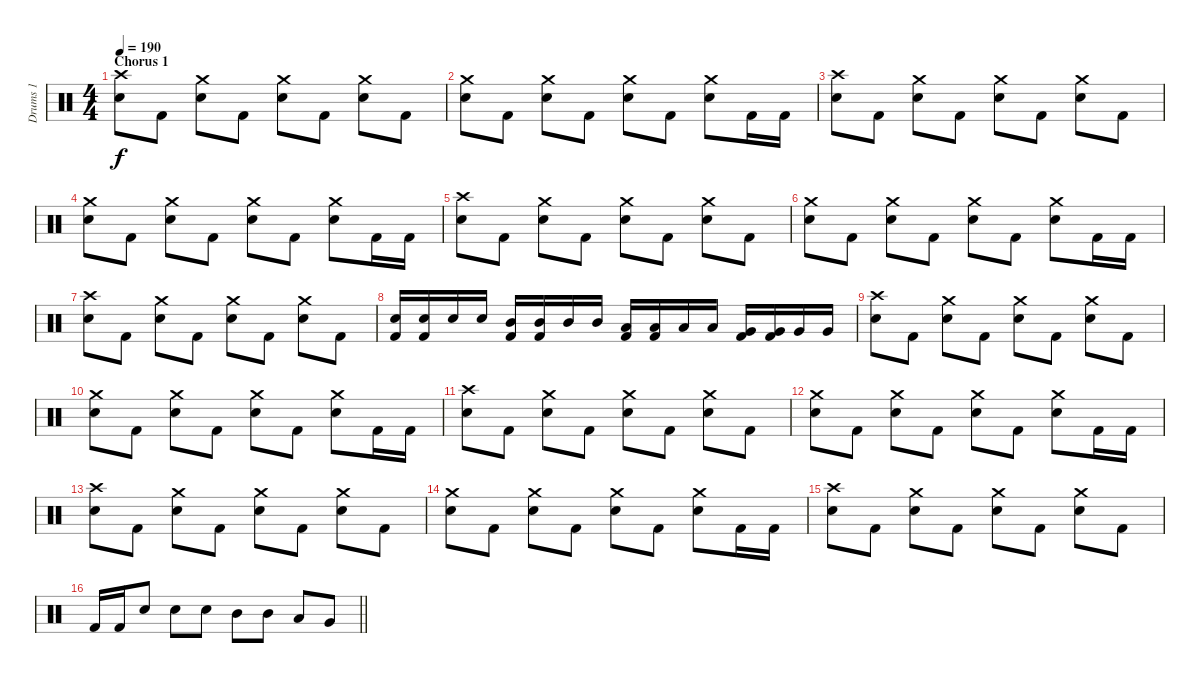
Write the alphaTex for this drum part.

\track ("Drums 1" "Drums 1") {instrument percussion}
\staff {score}
\articulation defaults
\ts (4 4)
\section ("" "Chorus 1")
\tempo 190
\clef neutral
\ks c
("Crash high (hit)" "Snare (hit) 2").8{dy f} "Kick (hit) 2".8 ("Crash medium (hit)" "Snare (hit) 2").8 "Kick (hit) 2".8 ("Crash medium (hit)" "Snare (hit) 2").8 "Kick (hit) 2".8 ("Crash medium (hit)" "Snare (hit) 2").8 "Kick (hit) 2".8 |
("Crash medium (hit)" "Snare (hit) 2").8 "Kick (hit) 2".8 ("Crash medium (hit)" "Snare (hit) 2").8 "Kick (hit) 2".8 ("Crash medium (hit)" "Snare (hit) 2").8 "Kick (hit) 2".8 ("Crash medium (hit)" "Snare (hit) 2").8 "Kick (hit) 2".16 "Kick (hit) 2".16 |
("Crash high (hit)" "Snare (hit) 2").8 "Kick (hit) 2".8 ("Crash medium (hit)" "Snare (hit) 2").8 "Kick (hit) 2".8 ("Crash medium (hit)" "Snare (hit) 2").8 "Kick (hit) 2".8 ("Crash medium (hit)" "Snare (hit) 2").8 "Kick (hit) 2".8 |
("Crash medium (hit)" "Snare (hit) 2").8 "Kick (hit) 2".8 ("Crash medium (hit)" "Snare (hit) 2").8 "Kick (hit) 2".8 ("Crash medium (hit)" "Snare (hit) 2").8 "Kick (hit) 2".8 ("Crash medium (hit)" "Snare (hit) 2").8 "Kick (hit) 2".16 "Kick (hit) 2".16 |
("Crash high (hit)" "Snare (hit) 2").8 "Kick (hit) 2".8 ("Crash medium (hit)" "Snare (hit) 2").8 "Kick (hit) 2".8 ("Crash medium (hit)" "Snare (hit) 2").8 "Kick (hit) 2".8 ("Crash medium (hit)" "Snare (hit) 2").8 "Kick (hit) 2".8 |
("Crash medium (hit)" "Snare (hit) 2").8 "Kick (hit) 2".8 ("Crash medium (hit)" "Snare (hit) 2").8 "Kick (hit) 2".8 ("Crash medium (hit)" "Snare (hit) 2").8 "Kick (hit) 2".8 ("Crash medium (hit)" "Snare (hit) 2").8 "Kick (hit) 2".16 "Kick (hit) 2".16 |
("Crash high (hit)" "Snare (hit) 2").8 "Kick (hit) 2".8 ("Crash medium (hit)" "Snare (hit) 2").8 "Kick (hit) 2".8 ("Crash medium (hit)" "Snare (hit) 2").8 "Kick (hit) 2".8 ("Crash medium (hit)" "Snare (hit) 2").8 "Kick (hit) 2".8 |
("Snare (hit) 2" "Kick (hit) 2").16 ("Snare (hit) 2" "Kick (hit) 2").16 "Snare (hit) 2".16 "Snare (hit) 2".16 ("Mid Tom (hit)" "Kick (hit) 2").16 ("Mid Tom (hit)" "Kick (hit) 2").16 "Mid Tom (hit)".16 "Mid Tom (hit)".16 ("Low Tom (hit)" "Kick (hit) 2").16 ("Low Tom (hit)" "Kick (hit) 2").16 "Low Tom (hit)".16 "Low Tom (hit)".16 ("Very Low Tom (hit)" "Kick (hit) 2").16 ("Very Low Tom (hit)" "Kick (hit) 2").16 "Very Low Tom (hit)".16 "Very Low Tom (hit)".16 |
("Crash high (hit)" "Snare (hit) 2").8 "Kick (hit) 2".8 ("Crash medium (hit)" "Snare (hit) 2").8 "Kick (hit) 2".8 ("Crash medium (hit)" "Snare (hit) 2").8 "Kick (hit) 2".8 ("Crash medium (hit)" "Snare (hit) 2").8 "Kick (hit) 2".8 |
("Crash medium (hit)" "Snare (hit) 2").8 "Kick (hit) 2".8 ("Crash medium (hit)" "Snare (hit) 2").8 "Kick (hit) 2".8 ("Crash medium (hit)" "Snare (hit) 2").8 "Kick (hit) 2".8 ("Crash medium (hit)" "Snare (hit) 2").8 "Kick (hit) 2".16 "Kick (hit) 2".16 |
("Crash high (hit)" "Snare (hit) 2").8 "Kick (hit) 2".8 ("Crash medium (hit)" "Snare (hit) 2").8 "Kick (hit) 2".8 ("Crash medium (hit)" "Snare (hit) 2").8 "Kick (hit) 2".8 ("Crash medium (hit)" "Snare (hit) 2").8 "Kick (hit) 2".8 |
("Crash medium (hit)" "Snare (hit) 2").8 "Kick (hit) 2".8 ("Crash medium (hit)" "Snare (hit) 2").8 "Kick (hit) 2".8 ("Crash medium (hit)" "Snare (hit) 2").8 "Kick (hit) 2".8 ("Crash medium (hit)" "Snare (hit) 2").8 "Kick (hit) 2".16 "Kick (hit) 2".16 |
("Crash high (hit)" "Snare (hit) 2").8 "Kick (hit) 2".8 ("Crash medium (hit)" "Snare (hit) 2").8 "Kick (hit) 2".8 ("Crash medium (hit)" "Snare (hit) 2").8 "Kick (hit) 2".8 ("Crash medium (hit)" "Snare (hit) 2").8 "Kick (hit) 2".8 |
("Crash medium (hit)" "Snare (hit) 2").8 "Kick (hit) 2".8 ("Crash medium (hit)" "Snare (hit) 2").8 "Kick (hit) 2".8 ("Crash medium (hit)" "Snare (hit) 2").8 "Kick (hit) 2".8 ("Crash medium (hit)" "Snare (hit) 2").8 "Kick (hit) 2".16 "Kick (hit) 2".16 |
("Crash high (hit)" "Snare (hit) 2").8 "Kick (hit) 2".8 ("Crash medium (hit)" "Snare (hit) 2").8 "Kick (hit) 2".8 ("Crash medium (hit)" "Snare (hit) 2").8 "Kick (hit) 2".8 ("Crash medium (hit)" "Snare (hit) 2").8 "Kick (hit) 2".8 |
\barLineRight lightlight "Kick (hit) 2".16 "Kick (hit) 2".16 "Snare (hit) 2".8 "Snare (hit) 2".8 "Snare (hit) 2".8 "Mid Tom (hit)".8 "Mid Tom (hit)".8 "Low Tom (hit)".8 "Very Low Tom (hit)".8
